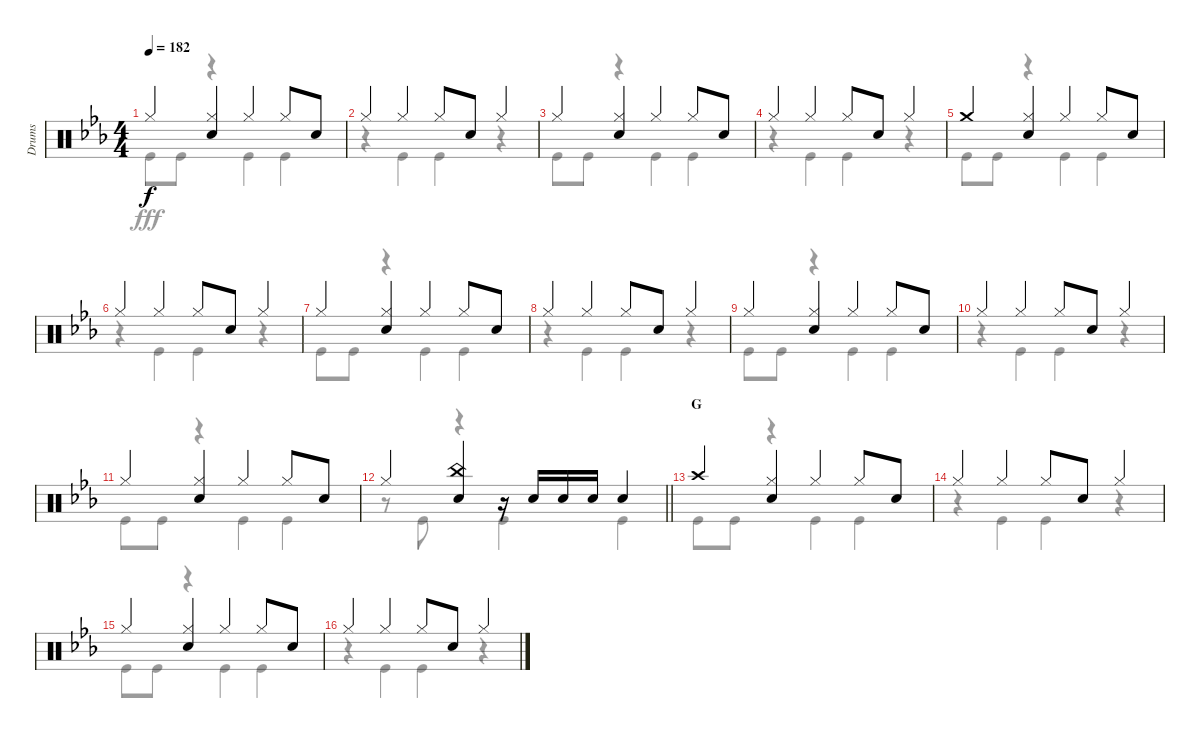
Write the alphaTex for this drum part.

\track ("Drums" "Drums") {instrument percussion}
\staff {score}
\articulation defaults
\voice
\ts (4 4)
\tempo 182
\clef neutral
\ks eb "Hi-Hat (closed)".4{dy f}
("Hi-Hat (closed)" "Snare (hit) 2").4 "Hi-Hat (closed)".4 "Hi-Hat (closed)".8 "Snare (hit) 2".8 |
"Hi-Hat (closed)".4 "Hi-Hat (closed)".4 "Hi-Hat (closed)".8 "Snare (hit) 2".8 "Hi-Hat (closed)".4 |
"Hi-Hat (closed)".4 ("Hi-Hat (closed)" "Snare (hit) 2").4 "Hi-Hat (closed)".4 "Hi-Hat (closed)".8 "Snare (hit) 2".8 |
"Hi-Hat (closed)".4 "Hi-Hat (closed)".4 "Hi-Hat (closed)".8 "Snare (hit) 2".8 "Hi-Hat (closed)".4 |
"Crash medium (hit)".4 ("Hi-Hat (closed)" "Snare (hit) 2").4 "Hi-Hat (closed)".4 "Hi-Hat (closed)".8 "Snare (hit) 2".8 |
"Hi-Hat (closed)".4 "Hi-Hat (closed)".4 "Hi-Hat (closed)".8 "Snare (hit) 2".8 "Hi-Hat (closed)".4 |
"Hi-Hat (closed)".4 ("Hi-Hat (closed)" "Snare (hit) 2").4 "Hi-Hat (closed)".4 "Hi-Hat (closed)".8 "Snare (hit) 2".8 |
"Hi-Hat (closed)".4 "Hi-Hat (closed)".4 "Hi-Hat (closed)".8 "Snare (hit) 2".8 "Hi-Hat (closed)".4 |
"Hi-Hat (closed)".4 ("Hi-Hat (closed)" "Snare (hit) 2").4 "Hi-Hat (closed)".4 "Hi-Hat (closed)".8 "Snare (hit) 2".8 |
"Hi-Hat (closed)".4 "Hi-Hat (closed)".4 "Hi-Hat (closed)".8 "Snare (hit) 2".8 "Hi-Hat (closed)".4 |
"Hi-Hat (closed)".4 ("Hi-Hat (closed)" "Snare (hit) 2").4 "Hi-Hat (closed)".4 "Hi-Hat (closed)".8 "Snare (hit) 2".8 |
\barLineRight lightlight "Hi-Hat (closed)".4
("China (hit)" "Snare (hit) 2").4 r.16 "Snare (hit) 2".16 "Snare (hit) 2".16 "Snare (hit) 2".16 "Snare (hit) 2".4 |
\section ("" "G")
"Crash high (hit)".4 ("Hi-Hat (closed)" "Snare (hit) 2").4 "Hi-Hat (closed)".4 "Hi-Hat (closed)".8 "Snare (hit) 2".8 |
"Hi-Hat (closed)".4 "Hi-Hat (closed)".4 "Hi-Hat (closed)".8 "Snare (hit) 2".8 "Hi-Hat (closed)".4 |
"Hi-Hat (closed)".4 ("Hi-Hat (closed)" "Snare (hit) 2").4 "Hi-Hat (closed)".4 "Hi-Hat (closed)".8 "Snare (hit) 2".8 |
"Hi-Hat (closed)".4 "Hi-Hat (closed)".4 "Hi-Hat (closed)".8 "Snare (hit) 2".8 "Hi-Hat (closed)".4
\voice
\clef neutral
\ottava regular
\simile none
\ks eb "Kick (hit)".8{dy fff} "Kick (hit)".8
r.4 "Kick (hit)".4 "Kick (hit)".4 |
r.4 "Kick (hit)".4 "Kick (hit)".4 r.4 |
"Kick (hit)".8 "Kick (hit)".8 r.4 "Kick (hit)".4 "Kick (hit)".4 |
r.4 "Kick (hit)".4 "Kick (hit)".4 r.4 |
"Kick (hit)".8 "Kick (hit)".8 r.4 "Kick (hit)".4 "Kick (hit)".4 |
r.4 "Kick (hit)".4 "Kick (hit)".4 r.4 |
"Kick (hit)".8 "Kick (hit)".8 r.4 "Kick (hit)".4 "Kick (hit)".4 |
r.4 "Kick (hit)".4 "Kick (hit)".4 r.4 |
"Kick (hit)".8 "Kick (hit)".8 r.4 "Kick (hit)".4 "Kick (hit)".4 |
r.4 "Kick (hit)".4 "Kick (hit)".4 r.4 |
"Kick (hit)".8 "Kick (hit)".8 r.4 "Kick (hit)".4 "Kick (hit)".4 |
\barLineRight lightlight
r.8 "Kick (hit)".8 r.4 "Kick (hit)".4 "Kick (hit)".4 |
"Kick (hit)".8 "Kick (hit)".8 r.4 "Kick (hit)".4 "Kick (hit)".4 |
r.4 "Kick (hit)".4 "Kick (hit)".4 r.4 |
"Kick (hit)".8 "Kick (hit)".8 r.4 "Kick (hit)".4 "Kick (hit)".4 |
r.4 "Kick (hit)".4 "Kick (hit)".4 r.4
